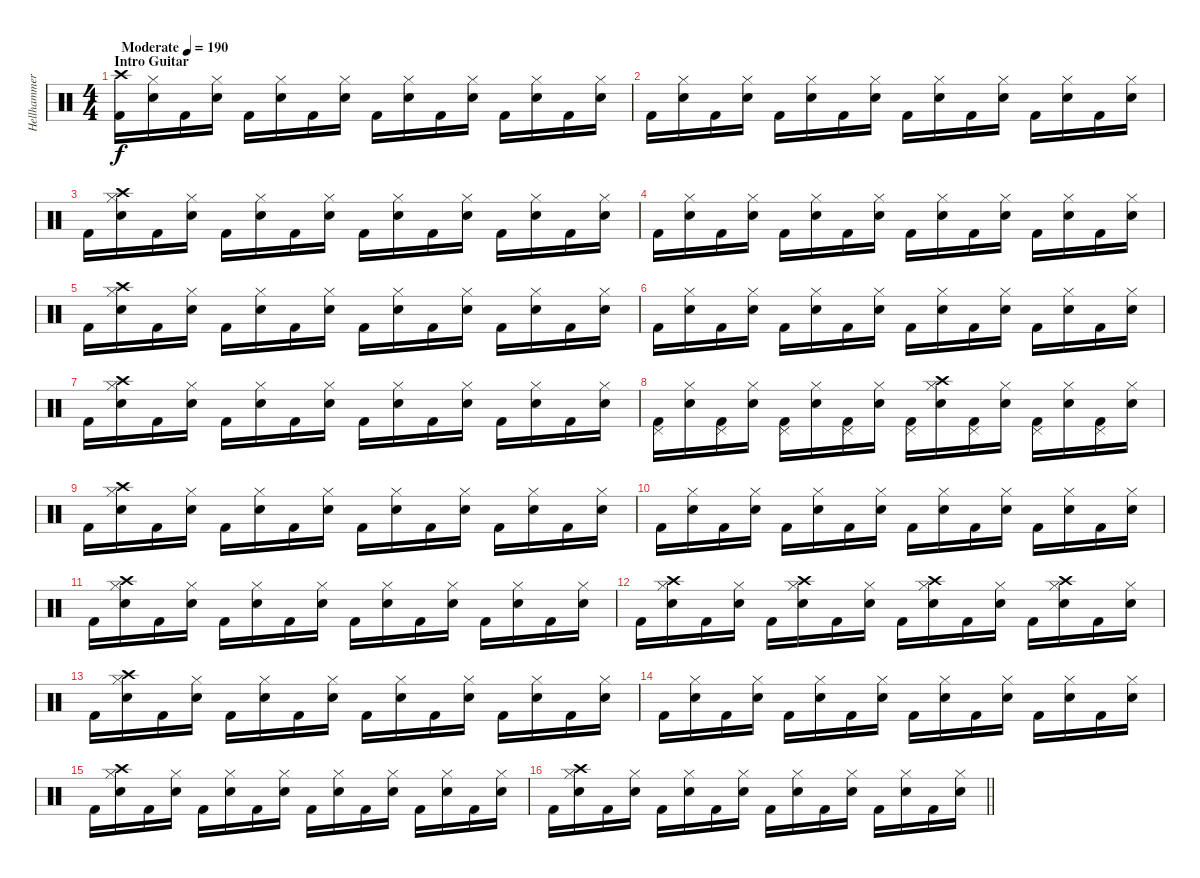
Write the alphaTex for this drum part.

\track ("Hellhammer" "Hellhammer") {instrument percussion}
\staff {score}
\articulation defaults
\ts (4 4)
\section ("" "Intro Guitar")
\tempo (190 "Moderate")
\clef neutral
\ks c
("Crash high (hit)" "Kick (hit) 2").16{dy f} ("Hi-Hat (closed)" "Electric Snare (hit)").16 "Kick (hit) 2".16 ("Hi-Hat (closed)" "Electric Snare (hit)").16 "Kick (hit) 2".16 ("Hi-Hat (closed)" "Electric Snare (hit)").16 "Kick (hit) 2".16 ("Hi-Hat (closed)" "Electric Snare (hit)").16 "Kick (hit) 2".16 ("Hi-Hat (closed)" "Electric Snare (hit)").16 "Kick (hit) 2".16 ("Hi-Hat (closed)" "Electric Snare (hit)").16 "Kick (hit) 2".16 ("Hi-Hat (closed)" "Electric Snare (hit)").16 "Kick (hit) 2".16 ("Hi-Hat (closed)" "Electric Snare (hit)").16 |
"Kick (hit) 2".16 ("Hi-Hat (closed)" "Electric Snare (hit)").16 "Kick (hit) 2".16 ("Hi-Hat (closed)" "Electric Snare (hit)").16 "Kick (hit) 2".16 ("Hi-Hat (closed)" "Electric Snare (hit)").16 "Kick (hit) 2".16 ("Hi-Hat (closed)" "Electric Snare (hit)").16 "Kick (hit) 2".16 ("Hi-Hat (closed)" "Electric Snare (hit)").16 "Kick (hit) 2".16 ("Hi-Hat (closed)" "Electric Snare (hit)").16 "Kick (hit) 2".16 ("Hi-Hat (closed)" "Electric Snare (hit)").16 "Kick (hit) 2".16 ("Hi-Hat (closed)" "Electric Snare (hit)").16 |
"Kick (hit) 2".16 ("Crash high (hit)" "Hi-Hat (closed)" "Electric Snare (hit)").16 "Kick (hit) 2".16 ("Hi-Hat (closed)" "Electric Snare (hit)").16 "Kick (hit) 2".16 ("Hi-Hat (closed)" "Electric Snare (hit)").16 "Kick (hit) 2".16 ("Hi-Hat (closed)" "Electric Snare (hit)").16 "Kick (hit) 2".16 ("Hi-Hat (closed)" "Electric Snare (hit)").16 "Kick (hit) 2".16 ("Hi-Hat (closed)" "Electric Snare (hit)").16 "Kick (hit) 2".16 ("Hi-Hat (closed)" "Electric Snare (hit)").16 "Kick (hit) 2".16 ("Hi-Hat (closed)" "Electric Snare (hit)").16 |
"Kick (hit) 2".16 ("Hi-Hat (closed)" "Electric Snare (hit)").16 "Kick (hit) 2".16 ("Hi-Hat (closed)" "Electric Snare (hit)").16 "Kick (hit) 2".16 ("Hi-Hat (closed)" "Electric Snare (hit)").16 "Kick (hit) 2".16 ("Hi-Hat (closed)" "Electric Snare (hit)").16 "Kick (hit) 2".16 ("Hi-Hat (closed)" "Electric Snare (hit)").16 "Kick (hit) 2".16 ("Hi-Hat (closed)" "Electric Snare (hit)").16 "Kick (hit) 2".16 ("Hi-Hat (closed)" "Electric Snare (hit)").16 "Kick (hit) 2".16 ("Hi-Hat (closed)" "Electric Snare (hit)").16 |
"Kick (hit) 2".16 ("Crash high (hit)" "Hi-Hat (closed)" "Electric Snare (hit)").16 "Kick (hit) 2".16 ("Hi-Hat (closed)" "Electric Snare (hit)").16 "Kick (hit) 2".16 ("Hi-Hat (closed)" "Electric Snare (hit)").16 "Kick (hit) 2".16 ("Hi-Hat (closed)" "Electric Snare (hit)").16 "Kick (hit) 2".16 ("Hi-Hat (closed)" "Electric Snare (hit)").16 "Kick (hit) 2".16 ("Hi-Hat (closed)" "Electric Snare (hit)").16 "Kick (hit) 2".16 ("Hi-Hat (closed)" "Electric Snare (hit)").16 "Kick (hit) 2".16 ("Hi-Hat (closed)" "Electric Snare (hit)").16 |
"Kick (hit) 2".16 ("Hi-Hat (closed)" "Electric Snare (hit)").16 "Kick (hit) 2".16 ("Hi-Hat (closed)" "Electric Snare (hit)").16 "Kick (hit) 2".16 ("Hi-Hat (closed)" "Electric Snare (hit)").16 "Kick (hit) 2".16 ("Hi-Hat (closed)" "Electric Snare (hit)").16 "Kick (hit) 2".16 ("Hi-Hat (closed)" "Electric Snare (hit)").16 "Kick (hit) 2".16 ("Hi-Hat (closed)" "Electric Snare (hit)").16 "Kick (hit) 2".16 ("Hi-Hat (closed)" "Electric Snare (hit)").16 "Kick (hit) 2".16 ("Hi-Hat (closed)" "Electric Snare (hit)").16 |
"Kick (hit) 2".16 ("Crash high (hit)" "Hi-Hat (closed)" "Electric Snare (hit)").16 "Kick (hit) 2".16 ("Hi-Hat (closed)" "Electric Snare (hit)").16 "Kick (hit) 2".16 ("Hi-Hat (closed)" "Electric Snare (hit)").16 "Kick (hit) 2".16 ("Hi-Hat (closed)" "Electric Snare (hit)").16 "Kick (hit) 2".16 ("Hi-Hat (closed)" "Electric Snare (hit)").16 "Kick (hit) 2".16 ("Hi-Hat (closed)" "Electric Snare (hit)").16 "Kick (hit) 2".16 ("Hi-Hat (closed)" "Electric Snare (hit)").16 "Kick (hit) 2".16 ("Hi-Hat (closed)" "Electric Snare (hit)").16 |
("Pedal Hi-Hat (hit)" "Kick (hit) 2").16 ("Hi-Hat (closed)" "Electric Snare (hit)").16 ("Pedal Hi-Hat (hit)" "Kick (hit) 2").16 ("Hi-Hat (closed)" "Electric Snare (hit)").16 ("Pedal Hi-Hat (hit)" "Kick (hit) 2").16 ("Hi-Hat (closed)" "Electric Snare (hit)").16 ("Pedal Hi-Hat (hit)" "Kick (hit) 2").16 ("Hi-Hat (closed)" "Electric Snare (hit)").16 ("Pedal Hi-Hat (hit)" "Kick (hit) 2").16 ("Crash high (hit)" "Hi-Hat (closed)" "Electric Snare (hit)").16 ("Pedal Hi-Hat (hit)" "Kick (hit) 2").16 ("Hi-Hat (closed)" "Electric Snare (hit)").16 ("Pedal Hi-Hat (hit)" "Kick (hit) 2").16 ("Hi-Hat (closed)" "Electric Snare (hit)").16 ("Pedal Hi-Hat (hit)" "Kick (hit) 2").16 ("Hi-Hat (closed)" "Electric Snare (hit)").16 |
"Kick (hit) 2".16 ("Crash high (hit)" "Hi-Hat (closed)" "Electric Snare (hit)").16 "Kick (hit) 2".16 ("Hi-Hat (closed)" "Electric Snare (hit)").16 "Kick (hit) 2".16 ("Hi-Hat (closed)" "Electric Snare (hit)").16 "Kick (hit) 2".16 ("Hi-Hat (closed)" "Electric Snare (hit)").16 "Kick (hit) 2".16 ("Hi-Hat (closed)" "Electric Snare (hit)").16 "Kick (hit) 2".16 ("Hi-Hat (closed)" "Electric Snare (hit)").16 "Kick (hit) 2".16 ("Hi-Hat (closed)" "Electric Snare (hit)").16 "Kick (hit) 2".16 ("Hi-Hat (closed)" "Electric Snare (hit)").16 |
"Kick (hit) 2".16 ("Hi-Hat (closed)" "Electric Snare (hit)").16 "Kick (hit) 2".16 ("Hi-Hat (closed)" "Electric Snare (hit)").16 "Kick (hit) 2".16 ("Hi-Hat (closed)" "Electric Snare (hit)").16 "Kick (hit) 2".16 ("Hi-Hat (closed)" "Electric Snare (hit)").16 "Kick (hit) 2".16 ("Hi-Hat (closed)" "Electric Snare (hit)").16 "Kick (hit) 2".16 ("Hi-Hat (closed)" "Electric Snare (hit)").16 "Kick (hit) 2".16 ("Hi-Hat (closed)" "Electric Snare (hit)").16 "Kick (hit) 2".16 ("Hi-Hat (closed)" "Electric Snare (hit)").16 |
"Kick (hit) 2".16 ("Crash high (hit)" "Hi-Hat (closed)" "Electric Snare (hit)").16 "Kick (hit) 2".16 ("Hi-Hat (closed)" "Electric Snare (hit)").16 "Kick (hit) 2".16 ("Hi-Hat (closed)" "Electric Snare (hit)").16 "Kick (hit) 2".16 ("Hi-Hat (closed)" "Electric Snare (hit)").16 "Kick (hit) 2".16 ("Hi-Hat (closed)" "Electric Snare (hit)").16 "Kick (hit) 2".16 ("Hi-Hat (closed)" "Electric Snare (hit)").16 "Kick (hit) 2".16 ("Hi-Hat (closed)" "Electric Snare (hit)").16 "Kick (hit) 2".16 ("Hi-Hat (closed)" "Electric Snare (hit)").16 |
"Kick (hit) 2".16 ("Crash high (hit)" "Hi-Hat (closed)" "Electric Snare (hit)").16 "Kick (hit) 2".16 ("Hi-Hat (closed)" "Electric Snare (hit)").16 "Kick (hit) 2".16 ("Crash high (hit)" "Hi-Hat (closed)" "Electric Snare (hit)").16 "Kick (hit) 2".16 ("Hi-Hat (closed)" "Electric Snare (hit)").16 "Kick (hit) 2".16 ("Crash high (hit)" "Hi-Hat (closed)" "Electric Snare (hit)").16 "Kick (hit) 2".16 ("Hi-Hat (closed)" "Electric Snare (hit)").16 "Kick (hit) 2".16 ("Crash high (hit)" "Hi-Hat (closed)" "Electric Snare (hit)").16 "Kick (hit) 2".16 ("Hi-Hat (closed)" "Electric Snare (hit)").16 |
"Kick (hit) 2".16 ("Crash high (hit)" "Hi-Hat (closed)" "Electric Snare (hit)").16 "Kick (hit) 2".16 ("Hi-Hat (closed)" "Electric Snare (hit)").16 "Kick (hit) 2".16 ("Hi-Hat (closed)" "Electric Snare (hit)").16 "Kick (hit) 2".16 ("Hi-Hat (closed)" "Electric Snare (hit)").16 "Kick (hit) 2".16 ("Hi-Hat (closed)" "Electric Snare (hit)").16 "Kick (hit) 2".16 ("Hi-Hat (closed)" "Electric Snare (hit)").16 "Kick (hit) 2".16 ("Hi-Hat (closed)" "Electric Snare (hit)").16 "Kick (hit) 2".16 ("Hi-Hat (closed)" "Electric Snare (hit)").16 |
"Kick (hit) 2".16 ("Hi-Hat (closed)" "Electric Snare (hit)").16 "Kick (hit) 2".16 ("Hi-Hat (closed)" "Electric Snare (hit)").16 "Kick (hit) 2".16 ("Hi-Hat (closed)" "Electric Snare (hit)").16 "Kick (hit) 2".16 ("Hi-Hat (closed)" "Electric Snare (hit)").16 "Kick (hit) 2".16 ("Hi-Hat (closed)" "Electric Snare (hit)").16 "Kick (hit) 2".16 ("Hi-Hat (closed)" "Electric Snare (hit)").16 "Kick (hit) 2".16 ("Hi-Hat (closed)" "Electric Snare (hit)").16 "Kick (hit) 2".16 ("Hi-Hat (closed)" "Electric Snare (hit)").16 |
"Kick (hit) 2".16 ("Crash high (hit)" "Hi-Hat (closed)" "Electric Snare (hit)").16 "Kick (hit) 2".16 ("Hi-Hat (closed)" "Electric Snare (hit)").16 "Kick (hit) 2".16 ("Hi-Hat (closed)" "Electric Snare (hit)").16 "Kick (hit) 2".16 ("Hi-Hat (closed)" "Electric Snare (hit)").16 "Kick (hit) 2".16 ("Hi-Hat (closed)" "Electric Snare (hit)").16 "Kick (hit) 2".16 ("Hi-Hat (closed)" "Electric Snare (hit)").16 "Kick (hit) 2".16 ("Hi-Hat (closed)" "Electric Snare (hit)").16 "Kick (hit) 2".16 ("Hi-Hat (closed)" "Electric Snare (hit)").16 |
\barLineRight lightlight "Kick (hit) 2".16
("Crash high (hit)" "Hi-Hat (closed)" "Electric Snare (hit)").16 "Kick (hit) 2".16 ("Hi-Hat (closed)" "Electric Snare (hit)").16 "Kick (hit) 2".16 ("Hi-Hat (closed)" "Electric Snare (hit)").16 "Kick (hit) 2".16 ("Hi-Hat (closed)" "Electric Snare (hit)").16 "Kick (hit) 2".16 ("Hi-Hat (closed)" "Electric Snare (hit)").16 "Kick (hit) 2".16 ("Hi-Hat (closed)" "Electric Snare (hit)").16 "Kick (hit) 2".16 ("Hi-Hat (closed)" "Electric Snare (hit)").16 "Kick (hit) 2".16 ("Hi-Hat (closed)" "Electric Snare (hit)").16
